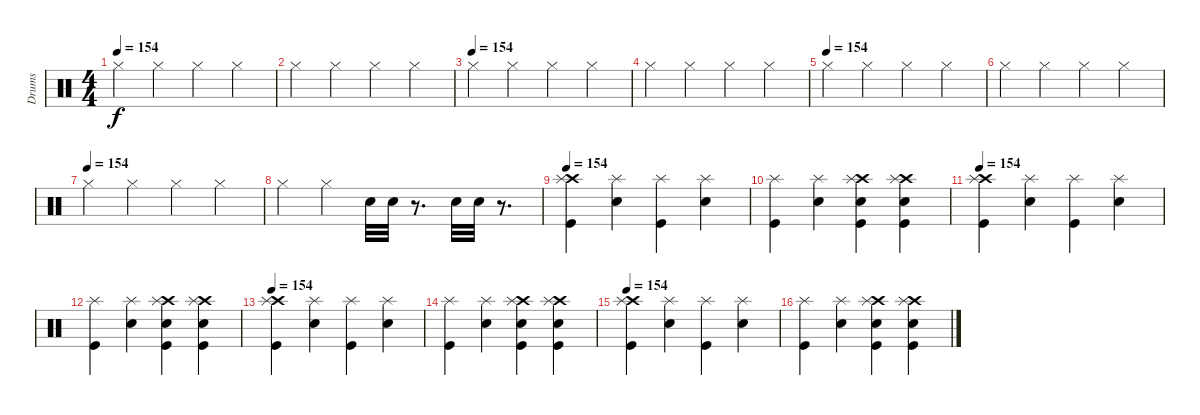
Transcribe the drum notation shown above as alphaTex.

\track ("Drums" "Drums") {instrument percussion}
\staff {score}
\articulation defaults
\ts (4 4)
\tempo 154
\clef neutral
\ks c "Hi-Hat (closed)".4{dy f} "Hi-Hat (closed)".4 "Hi-Hat (closed)".4 "Hi-Hat (closed)".4
|
"Hi-Hat (closed)".4 "Hi-Hat (closed)".4 "Hi-Hat (closed)".4 "Hi-Hat (closed)".4 |
\tempo (154)
"Hi-Hat (closed)".4 "Hi-Hat (closed)".4 "Hi-Hat (closed)".4 "Hi-Hat (closed)".4 |
"Hi-Hat (closed)".4 "Hi-Hat (closed)".4 "Hi-Hat (closed)".4 "Hi-Hat (closed)".4 |
\tempo (154)
"Hi-Hat (closed)".4 "Hi-Hat (closed)".4 "Hi-Hat (closed)".4 "Hi-Hat (closed)".4 |
"Hi-Hat (closed)".4 "Hi-Hat (closed)".4 "Hi-Hat (closed)".4 "Hi-Hat (closed)".4 |
\tempo (154)
"Hi-Hat (closed)".4 "Hi-Hat (closed)".4 "Hi-Hat (closed)".4 "Hi-Hat (closed)".4 |
"Hi-Hat (closed)".4 "Hi-Hat (closed)".4 "Snare (hit) 2".32 "Snare (hit) 2".32 r.8{d} "Snare (hit) 2".32 "Snare (hit) 2".32 r.8{d} |
\tempo 154
("Crash high (hit)" "Kick (hit)" "Splash (hit)").4 ("Snare (hit) 2" "Splash (hit)").4 ("Kick (hit)" "Splash (hit)").4 ("Snare (hit) 2" "Splash (hit)").4 |
("Splash (hit)" "Kick (hit)").4 ("Splash (hit)" "Snare (hit) 2").4 ("Crash high (hit)" "Splash (hit)" "Kick (hit)" "Snare (hit) 2").4 ("Crash high (hit)" "Splash (hit)" "Kick (hit)" "Snare (hit) 2").4 |
\tempo 154
("Crash high (hit)" "Kick (hit)" "Splash (hit)").4 ("Snare (hit) 2" "Splash (hit)").4 ("Kick (hit)" "Splash (hit)").4 ("Snare (hit) 2" "Splash (hit)").4 |
("Splash (hit)" "Kick (hit)").4 ("Splash (hit)" "Snare (hit) 2").4 ("Crash high (hit)" "Splash (hit)" "Kick (hit)" "Snare (hit) 2").4 ("Crash high (hit)" "Splash (hit)" "Kick (hit)" "Snare (hit) 2").4 |
\tempo 154
("Crash high (hit)" "Kick (hit)" "Splash (hit)").4 ("Snare (hit) 2" "Splash (hit)").4 ("Kick (hit)" "Splash (hit)").4 ("Snare (hit) 2" "Splash (hit)").4 |
("Splash (hit)" "Kick (hit)").4 ("Splash (hit)" "Snare (hit) 2").4 ("Crash high (hit)" "Splash (hit)" "Kick (hit)" "Snare (hit) 2").4 ("Crash high (hit)" "Splash (hit)" "Kick (hit)" "Snare (hit) 2").4 |
\tempo 154
("Crash high (hit)" "Kick (hit)" "Splash (hit)").4 ("Snare (hit) 2" "Splash (hit)").4 ("Kick (hit)" "Splash (hit)").4 ("Snare (hit) 2" "Splash (hit)").4 |
("Splash (hit)" "Kick (hit)").4 ("Splash (hit)" "Snare (hit) 2").4 ("Crash high (hit)" "Splash (hit)" "Kick (hit)" "Snare (hit) 2").4 ("Crash high (hit)" "Splash (hit)" "Kick (hit)" "Snare (hit) 2").4
